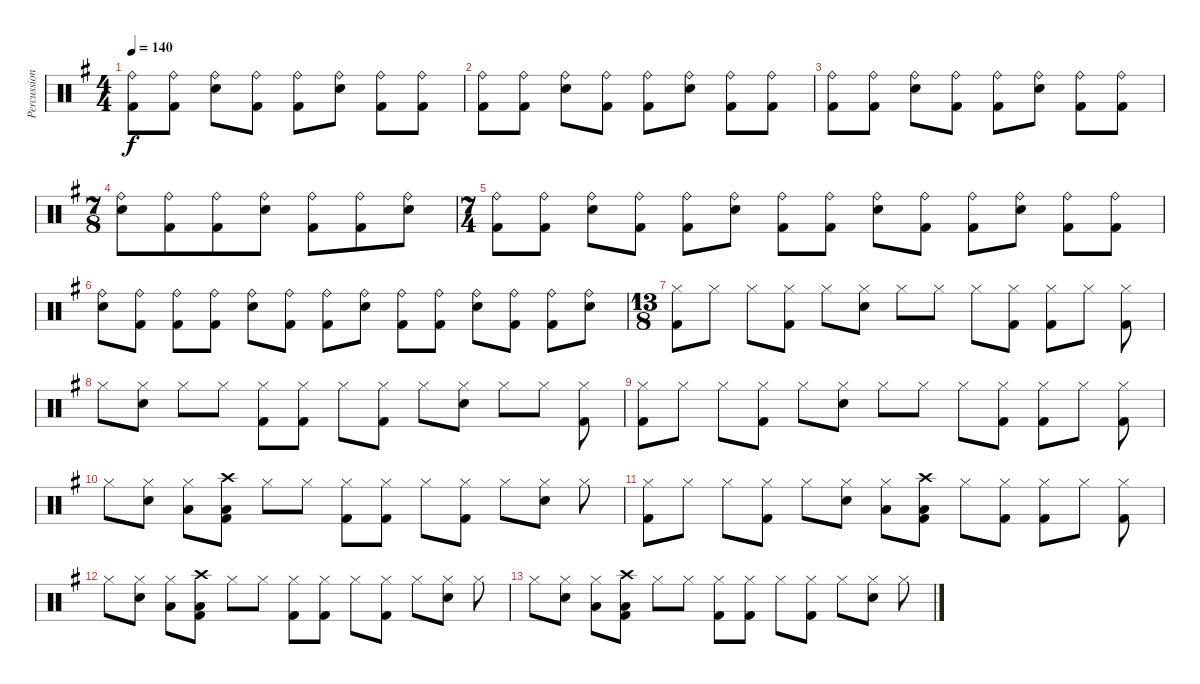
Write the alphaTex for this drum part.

\track ("Percussions" "Percussion") {instrument percussion}
\staff {score}
\articulation defaults
\ts (4 4)
\tempo 140
\clef neutral
\ks g
("Ride (bell)" "Kick (hit) 2").8{dy f} ("Ride (bell)" "Kick (hit) 2").8 ("Ride (bell)" "Snare (hit) 2").8 ("Ride (bell)" "Kick (hit) 2").8 ("Ride (bell)" "Kick (hit) 2").8 ("Ride (bell)" "Snare (hit) 2").8 ("Ride (bell)" "Kick (hit) 2").8 ("Ride (bell)" "Kick (hit) 2").8 |
("Ride (bell)" "Kick (hit) 2").8 ("Ride (bell)" "Kick (hit) 2").8 ("Ride (bell)" "Snare (hit) 2").8 ("Ride (bell)" "Kick (hit) 2").8 ("Ride (bell)" "Kick (hit) 2").8 ("Ride (bell)" "Snare (hit) 2").8 ("Ride (bell)" "Kick (hit) 2").8 ("Ride (bell)" "Kick (hit) 2").8 |
("Ride (bell)" "Kick (hit) 2").8 ("Ride (bell)" "Kick (hit) 2").8 ("Ride (bell)" "Snare (hit) 2").8 ("Ride (bell)" "Kick (hit) 2").8 ("Ride (bell)" "Kick (hit) 2").8 ("Ride (bell)" "Snare (hit) 2").8 ("Ride (bell)" "Kick (hit) 2").8 ("Ride (bell)" "Kick (hit) 2").8 |
\ts (7 8)
("Ride (bell)" "Snare (hit) 2").8 ("Ride (bell)" "Kick (hit) 2").8 ("Ride (bell)" "Kick (hit) 2").8 ("Ride (bell)" "Snare (hit) 2").8 ("Ride (bell)" "Kick (hit) 2").8 ("Ride (bell)" "Kick (hit) 2").8 ("Ride (bell)" "Snare (hit) 2").8 |
\ts (7 4)
("Ride (bell)" "Kick (hit) 2").8 ("Ride (bell)" "Kick (hit) 2").8 ("Ride (bell)" "Snare (hit) 2").8 ("Ride (bell)" "Kick (hit) 2").8 ("Ride (bell)" "Kick (hit) 2").8 ("Ride (bell)" "Snare (hit) 2").8 ("Ride (bell)" "Kick (hit) 2").8 ("Ride (bell)" "Kick (hit) 2").8 ("Ride (bell)" "Snare (hit) 2").8 ("Ride (bell)" "Kick (hit) 2").8 ("Ride (bell)" "Kick (hit) 2").8 ("Ride (bell)" "Snare (hit) 2").8 ("Ride (bell)" "Kick (hit) 2").8 ("Ride (bell)" "Kick (hit) 2").8 |
("Ride (bell)" "Snare (hit) 2").8 ("Ride (bell)" "Kick (hit) 2").8 ("Ride (bell)" "Kick (hit) 2").8 ("Ride (bell)" "Kick (hit) 2").8 ("Ride (bell)" "Snare (hit) 2").8 ("Ride (bell)" "Kick (hit) 2").8 ("Ride (bell)" "Kick (hit) 2").8 ("Ride (bell)" "Snare (hit) 2").8 ("Ride (bell)" "Kick (hit) 2").8 ("Ride (bell)" "Kick (hit) 2").8 ("Ride (bell)" "Snare (hit) 2").8 ("Ride (bell)" "Kick (hit) 2").8 ("Ride (bell)" "Kick (hit) 2").8 ("Ride (bell)" "Snare (hit) 2").8 |
\ts (13 8)
("Hi-Hat (closed)" "Kick (hit) 2").8 "Hi-Hat (closed)".8 "Hi-Hat (closed)".8 ("Hi-Hat (closed)" "Kick (hit) 2").8 "Hi-Hat (closed)".8 ("Hi-Hat (closed)" "Snare (hit) 2").8 "Hi-Hat (closed)".8 "Hi-Hat (closed)".8 "Hi-Hat (closed)".8 ("Hi-Hat (closed)" "Kick (hit) 2").8 ("Hi-Hat (closed)" "Kick (hit) 2").8 "Hi-Hat (closed)".8 ("Hi-Hat (closed)" "Kick (hit) 2").8 |
"Hi-Hat (closed)".8 ("Hi-Hat (closed)" "Snare (hit) 2").8 "Hi-Hat (closed)".8 "Hi-Hat (closed)".8 ("Hi-Hat (closed)" "Kick (hit) 2").8 ("Hi-Hat (closed)" "Kick (hit) 2").8 "Hi-Hat (closed)".8 ("Hi-Hat (closed)" "Kick (hit) 2").8 "Hi-Hat (closed)".8 ("Hi-Hat (closed)" "Snare (hit) 2").8 "Hi-Hat (closed)".8 "Hi-Hat (closed)".8 ("Hi-Hat (closed)" "Kick (hit) 2").8 |
("Hi-Hat (closed)" "Kick (hit) 2").8 "Hi-Hat (closed)".8 "Hi-Hat (closed)".8 ("Hi-Hat (closed)" "Kick (hit) 2").8 "Hi-Hat (closed)".8 ("Hi-Hat (closed)" "Snare (hit) 2").8 "Hi-Hat (closed)".8 "Hi-Hat (closed)".8 "Hi-Hat (closed)".8 ("Hi-Hat (closed)" "Kick (hit) 2").8 ("Hi-Hat (closed)" "Kick (hit) 2").8 "Hi-Hat (closed)".8 ("Hi-Hat (closed)" "Kick (hit) 2").8 |
"Hi-Hat (closed)".8 ("Hi-Hat (closed)" "Snare (hit) 2").8 ("Hi-Hat (closed)" "Low Tom (hit)").8 ("Crash high (hit)" "Low Floor Tom (hit)" "Kick (hit) 2").8 "Hi-Hat (closed)".8 "Hi-Hat (closed)".8 ("Hi-Hat (closed)" "Kick (hit) 2").8 ("Hi-Hat (closed)" "Kick (hit) 2").8 "Hi-Hat (closed)".8 ("Hi-Hat (closed)" "Kick (hit) 2").8 "Hi-Hat (closed)".8 ("Hi-Hat (closed)" "Snare (hit) 2").8 "Hi-Hat (closed)".8 |
("Hi-Hat (closed)" "Kick (hit) 2").8 "Hi-Hat (closed)".8 "Hi-Hat (closed)".8 ("Hi-Hat (closed)" "Kick (hit) 2").8 "Hi-Hat (closed)".8 ("Hi-Hat (closed)" "Snare (hit) 2").8 ("Hi-Hat (closed)" "Low Tom (hit)").8 ("Crash high (hit)" "Low Floor Tom (hit)" "Kick (hit) 2").8 "Hi-Hat (closed)".8 ("Hi-Hat (closed)" "Kick (hit) 2").8 ("Hi-Hat (closed)" "Kick (hit) 2").8 "Hi-Hat (closed)".8 ("Hi-Hat (closed)" "Kick (hit) 2").8 |
"Hi-Hat (closed)".8 ("Hi-Hat (closed)" "Snare (hit) 2").8 ("Hi-Hat (closed)" "Low Tom (hit)").8 ("Crash high (hit)" "Low Floor Tom (hit)" "Kick (hit) 2").8 "Hi-Hat (closed)".8 "Hi-Hat (closed)".8 ("Hi-Hat (closed)" "Kick (hit) 2").8 ("Hi-Hat (closed)" "Kick (hit) 2").8 "Hi-Hat (closed)".8 ("Hi-Hat (closed)" "Kick (hit) 2").8 "Hi-Hat (closed)".8 ("Hi-Hat (closed)" "Snare (hit) 2").8 "Hi-Hat (closed)".8 |
"Hi-Hat (closed)".8 ("Hi-Hat (closed)" "Snare (hit) 2").8 ("Hi-Hat (closed)" "Low Tom (hit)").8 ("Crash high (hit)" "Low Floor Tom (hit)" "Kick (hit) 2").8 "Hi-Hat (closed)".8 "Hi-Hat (closed)".8 ("Hi-Hat (closed)" "Kick (hit) 2").8 ("Hi-Hat (closed)" "Kick (hit) 2").8 "Hi-Hat (closed)".8 ("Hi-Hat (closed)" "Kick (hit) 2").8 "Hi-Hat (closed)".8 ("Hi-Hat (closed)" "Snare (hit) 2").8 "Hi-Hat (closed)".8
